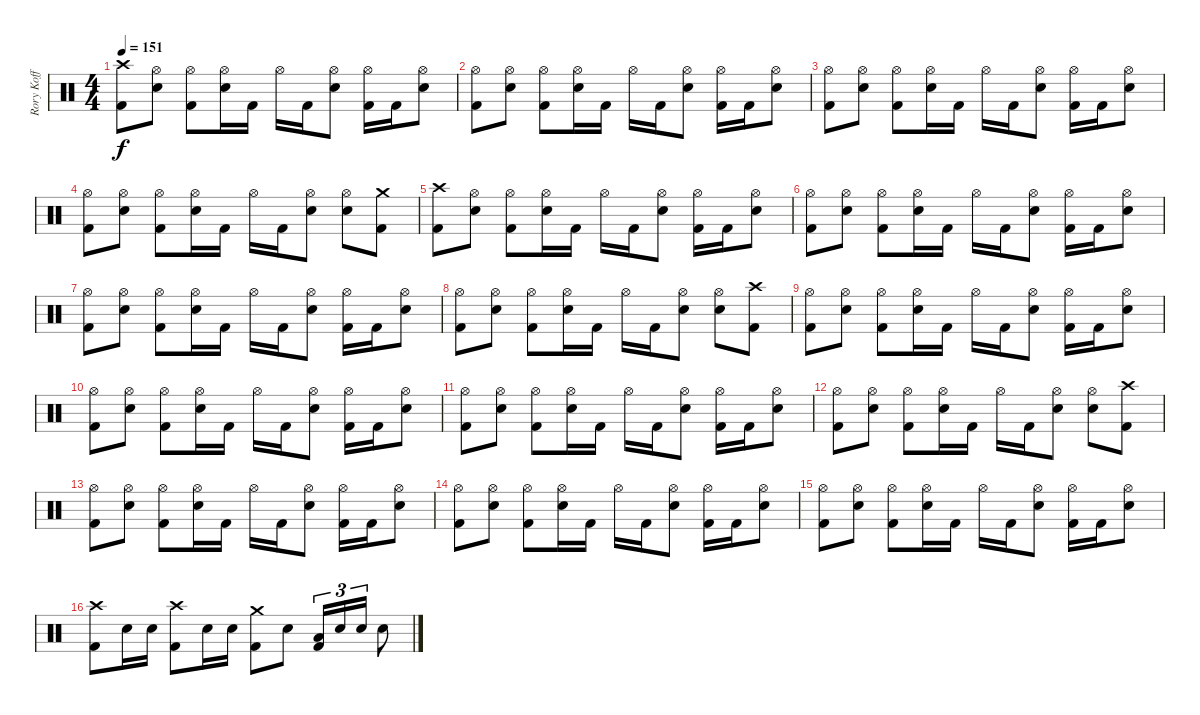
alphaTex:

\track ("Rory Koff" "Rory Koff") {instrument percussion}
\staff {score}
\articulation defaults
\ts (4 4)
\section ("" "")
\tempo 151
\clef neutral
\ks c
("Crash high (hit)" "Kick (hit) 2").8{dy f} ("Hi-Hat (open)" "Electric Snare (hit)").8 ("Hi-Hat (open)" "Kick (hit) 2").8 ("Hi-Hat (open)" "Electric Snare (hit)").16 "Kick (hit) 2".16 "Hi-Hat (open)".16 "Kick (hit) 2".16 ("Hi-Hat (open)" "Electric Snare (hit)").8 ("Hi-Hat (open)" "Kick (hit) 2").16 "Kick (hit) 2".16 ("Hi-Hat (open)" "Electric Snare (hit)").8 |
("Hi-Hat (open)" "Kick (hit) 2").8 ("Hi-Hat (open)" "Electric Snare (hit)").8 ("Hi-Hat (open)" "Kick (hit) 2").8 ("Hi-Hat (open)" "Electric Snare (hit)").16 "Kick (hit) 2".16 "Hi-Hat (open)".16 "Kick (hit) 2".16 ("Hi-Hat (open)" "Electric Snare (hit)").8 ("Hi-Hat (open)" "Kick (hit) 2").16 "Kick (hit) 2".16 ("Hi-Hat (open)" "Electric Snare (hit)").8 |
("Hi-Hat (open)" "Kick (hit) 2").8 ("Hi-Hat (open)" "Electric Snare (hit)").8 ("Hi-Hat (open)" "Kick (hit) 2").8 ("Hi-Hat (open)" "Electric Snare (hit)").16 "Kick (hit) 2".16 "Hi-Hat (open)".16 "Kick (hit) 2".16 ("Hi-Hat (open)" "Electric Snare (hit)").8 ("Hi-Hat (open)" "Kick (hit) 2").16 "Kick (hit) 2".16 ("Hi-Hat (open)" "Electric Snare (hit)").8 |
("Hi-Hat (open)" "Kick (hit) 2").8 ("Hi-Hat (open)" "Electric Snare (hit)").8 ("Hi-Hat (open)" "Kick (hit) 2").8 ("Hi-Hat (open)" "Electric Snare (hit)").16 "Kick (hit) 2".16 "Hi-Hat (open)".16 "Kick (hit) 2".16 ("Hi-Hat (open)" "Electric Snare (hit)").8 ("Hi-Hat (open)" "Electric Snare (hit)").8 ("Crash medium (hit)" "Kick (hit) 2").8 |
("Crash high (hit)" "Kick (hit) 2").8 ("Hi-Hat (open)" "Electric Snare (hit)").8 ("Hi-Hat (open)" "Kick (hit) 2").8 ("Hi-Hat (open)" "Electric Snare (hit)").16 "Kick (hit) 2".16 "Hi-Hat (open)".16 "Kick (hit) 2".16 ("Hi-Hat (open)" "Electric Snare (hit)").8 ("Hi-Hat (open)" "Kick (hit) 2").16 "Kick (hit) 2".16 ("Hi-Hat (open)" "Electric Snare (hit)").8 |
("Hi-Hat (open)" "Kick (hit) 2").8 ("Hi-Hat (open)" "Electric Snare (hit)").8 ("Hi-Hat (open)" "Kick (hit) 2").8 ("Hi-Hat (open)" "Electric Snare (hit)").16 "Kick (hit) 2".16 "Hi-Hat (open)".16 "Kick (hit) 2".16 ("Hi-Hat (open)" "Electric Snare (hit)").8 ("Hi-Hat (open)" "Kick (hit) 2").16 "Kick (hit) 2".16 ("Hi-Hat (open)" "Electric Snare (hit)").8 |
("Hi-Hat (open)" "Kick (hit) 2").8 ("Hi-Hat (open)" "Electric Snare (hit)").8 ("Hi-Hat (open)" "Kick (hit) 2").8 ("Hi-Hat (open)" "Electric Snare (hit)").16 "Kick (hit) 2".16 "Hi-Hat (open)".16 "Kick (hit) 2".16 ("Hi-Hat (open)" "Electric Snare (hit)").8 ("Hi-Hat (open)" "Kick (hit) 2").16 "Kick (hit) 2".16 ("Hi-Hat (open)" "Electric Snare (hit)").8 |
("Hi-Hat (open)" "Kick (hit) 2").8 ("Hi-Hat (open)" "Electric Snare (hit)").8 ("Hi-Hat (open)" "Kick (hit) 2").8 ("Hi-Hat (open)" "Electric Snare (hit)").16 "Kick (hit) 2".16 "Hi-Hat (open)".16 "Kick (hit) 2".16 ("Hi-Hat (open)" "Electric Snare (hit)").8 ("Hi-Hat (open)" "Electric Snare (hit)").8 ("Crash high (hit)" "Kick (hit) 2").8 |
("Hi-Hat (open)" "Kick (hit) 2").8 ("Hi-Hat (open)" "Electric Snare (hit)").8 ("Hi-Hat (open)" "Kick (hit) 2").8 ("Hi-Hat (open)" "Electric Snare (hit)").16 "Kick (hit) 2".16 "Hi-Hat (open)".16 "Kick (hit) 2".16 ("Hi-Hat (open)" "Electric Snare (hit)").8 ("Hi-Hat (open)" "Kick (hit) 2").16 "Kick (hit) 2".16 ("Hi-Hat (open)" "Electric Snare (hit)").8 |
("Hi-Hat (open)" "Kick (hit) 2").8 ("Hi-Hat (open)" "Electric Snare (hit)").8 ("Hi-Hat (open)" "Kick (hit) 2").8 ("Hi-Hat (open)" "Electric Snare (hit)").16 "Kick (hit) 2".16 "Hi-Hat (open)".16 "Kick (hit) 2".16 ("Hi-Hat (open)" "Electric Snare (hit)").8 ("Hi-Hat (open)" "Kick (hit) 2").16 "Kick (hit) 2".16 ("Hi-Hat (open)" "Electric Snare (hit)").8 |
("Hi-Hat (open)" "Kick (hit) 2").8 ("Hi-Hat (open)" "Electric Snare (hit)").8 ("Hi-Hat (open)" "Kick (hit) 2").8 ("Hi-Hat (open)" "Electric Snare (hit)").16 "Kick (hit) 2".16 "Hi-Hat (open)".16 "Kick (hit) 2".16 ("Hi-Hat (open)" "Electric Snare (hit)").8 ("Hi-Hat (open)" "Kick (hit) 2").16 "Kick (hit) 2".16 ("Hi-Hat (open)" "Electric Snare (hit)").8 |
("Hi-Hat (open)" "Kick (hit) 2").8 ("Hi-Hat (open)" "Electric Snare (hit)").8 ("Hi-Hat (open)" "Kick (hit) 2").8 ("Hi-Hat (open)" "Electric Snare (hit)").16 "Kick (hit) 2".16 "Hi-Hat (open)".16 "Kick (hit) 2".16 ("Hi-Hat (open)" "Electric Snare (hit)").8 ("Hi-Hat (open)" "Electric Snare (hit)").8 ("Crash high (hit)" "Kick (hit) 2").8 |
("Hi-Hat (open)" "Kick (hit) 2").8 ("Hi-Hat (open)" "Electric Snare (hit)").8 ("Hi-Hat (open)" "Kick (hit) 2").8 ("Hi-Hat (open)" "Electric Snare (hit)").16 "Kick (hit) 2".16 "Hi-Hat (open)".16 "Kick (hit) 2".16 ("Hi-Hat (open)" "Electric Snare (hit)").8 ("Hi-Hat (open)" "Kick (hit) 2").16 "Kick (hit) 2".16 ("Hi-Hat (open)" "Electric Snare (hit)").8 |
("Hi-Hat (open)" "Kick (hit) 2").8 ("Hi-Hat (open)" "Electric Snare (hit)").8 ("Hi-Hat (open)" "Kick (hit) 2").8 ("Hi-Hat (open)" "Electric Snare (hit)").16 "Kick (hit) 2".16 "Hi-Hat (open)".16 "Kick (hit) 2".16 ("Hi-Hat (open)" "Electric Snare (hit)").8 ("Hi-Hat (open)" "Kick (hit) 2").16 "Kick (hit) 2".16 ("Hi-Hat (open)" "Electric Snare (hit)").8 |
("Hi-Hat (open)" "Kick (hit) 2").8 ("Hi-Hat (open)" "Electric Snare (hit)").8 ("Hi-Hat (open)" "Kick (hit) 2").8 ("Hi-Hat (open)" "Electric Snare (hit)").16 "Kick (hit) 2".16 "Hi-Hat (open)".16 "Kick (hit) 2".16 ("Hi-Hat (open)" "Electric Snare (hit)").8 ("Hi-Hat (open)" "Kick (hit) 2").16 "Kick (hit) 2".16 ("Hi-Hat (open)" "Electric Snare (hit)").8 |
("Crash high (hit)" "Kick (hit) 2").8 "Electric Snare (hit)".16 "Electric Snare (hit)".16 ("Crash high (hit)" "Kick (hit) 2").8 "Electric Snare (hit)".16 "Electric Snare (hit)".16 ("Crash medium (hit)" "Kick (hit) 2").8 "Electric Snare (hit)".8 ("Low Tom (hit)" "Kick (hit) 2").16{tu (3 2)} "Electric Snare (hit)".16{tu (3 2)} "Electric Snare (hit)".16{tu (3 2)} "Electric Snare (hit)".8
